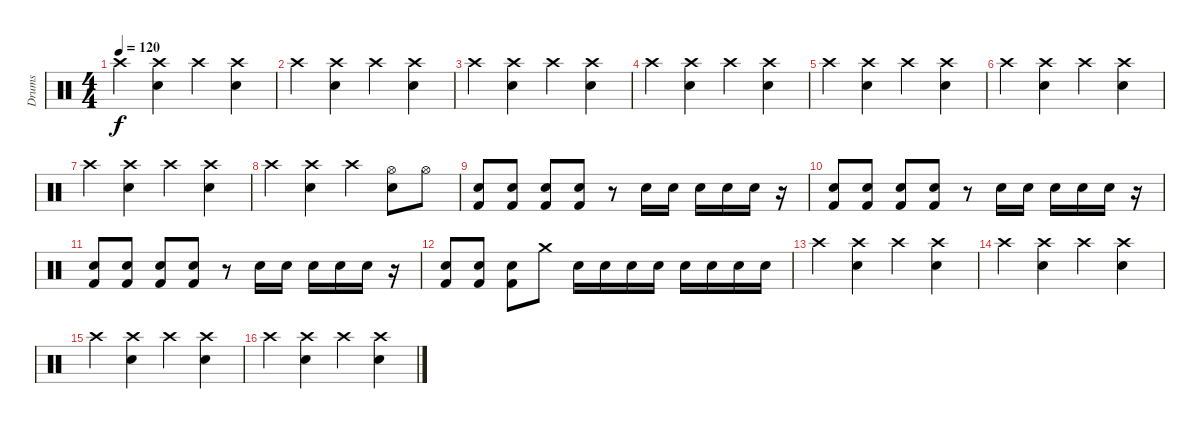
\track ("Drums" "Drums") {instrument percussion}
\staff {score}
\articulation defaults
\ts (4 4)
\tempo 120
\clef neutral
\ks c "Crash high (hit)".4{dy f}
("Crash high (hit)" "Snare (hit) 2").4 "Crash high (hit)".4 ("Crash high (hit)" "Snare (hit) 2").4 |
"Crash high (hit)".4 ("Crash high (hit)" "Snare (hit) 2").4 "Crash high (hit)".4 ("Crash high (hit)" "Snare (hit) 2").4 |
"Crash high (hit)".4 ("Crash high (hit)" "Snare (hit) 2").4 "Crash high (hit)".4 ("Crash high (hit)" "Snare (hit) 2").4 |
"Crash high (hit)".4 ("Crash high (hit)" "Snare (hit) 2").4 "Crash high (hit)".4 ("Crash high (hit)" "Snare (hit) 2").4 |
"Crash high (hit)".4 ("Crash high (hit)" "Snare (hit) 2").4 "Crash high (hit)".4 ("Crash high (hit)" "Snare (hit) 2").4 |
"Crash high (hit)".4 ("Crash high (hit)" "Snare (hit) 2").4 "Crash high (hit)".4 ("Crash high (hit)" "Snare (hit) 2").4 |
"Crash high (hit)".4 ("Crash high (hit)" "Snare (hit) 2").4 "Crash high (hit)".4 ("Crash high (hit)" "Snare (hit) 2").4 |
"Crash high (hit)".4 ("Crash high (hit)" "Snare (hit) 2").4 "Crash high (hit)".4 ("Hi-Hat (open)" "Snare (hit) 2").8 "Hi-Hat (open)".8 |
("Kick (hit) 2" "Snare (hit) 2").8 ("Kick (hit) 2" "Snare (hit) 2").8 ("Kick (hit) 2" "Snare (hit) 2").8 ("Kick (hit) 2" "Snare (hit) 2").8 r.8 "Snare (hit) 2".16 "Snare (hit) 2".16 "Snare (hit) 2".16 "Snare (hit) 2".16 "Snare (hit) 2".16 r.16 |
("Kick (hit) 2" "Snare (hit) 2").8 ("Kick (hit) 2" "Snare (hit) 2").8 ("Kick (hit) 2" "Snare (hit) 2").8 ("Kick (hit) 2" "Snare (hit) 2").8 r.8 "Snare (hit) 2".16 "Snare (hit) 2".16 "Snare (hit) 2".16 "Snare (hit) 2".16 "Snare (hit) 2".16 r.16 |
("Kick (hit) 2" "Snare (hit) 2").8 ("Kick (hit) 2" "Snare (hit) 2").8 ("Kick (hit) 2" "Snare (hit) 2").8 ("Kick (hit) 2" "Snare (hit) 2").8 r.8 "Snare (hit) 2".16 "Snare (hit) 2".16 "Snare (hit) 2".16 "Snare (hit) 2".16 "Snare (hit) 2".16 r.16 |
("Kick (hit) 2" "Snare (hit) 2").8 ("Kick (hit) 2" "Snare (hit) 2").8 ("Kick (hit) 2" "Snare (hit) 2").8 "Crash medium (hit)".8 "Snare (hit) 2".16 "Snare (hit) 2".16 "Snare (hit) 2".16 "Snare (hit) 2".16 "Snare (hit) 2".16 "Snare (hit) 2".16 "Snare (hit) 2".16 "Snare (hit) 2".16 |
"Crash high (hit)".4 ("Crash high (hit)" "Snare (hit) 2").4 "Crash high (hit)".4 ("Crash high (hit)" "Snare (hit) 2").4 |
"Crash high (hit)".4 ("Crash high (hit)" "Snare (hit) 2").4 "Crash high (hit)".4 ("Crash high (hit)" "Snare (hit) 2").4 |
"Crash high (hit)".4 ("Crash high (hit)" "Snare (hit) 2").4 "Crash high (hit)".4 ("Crash high (hit)" "Snare (hit) 2").4 |
"Crash high (hit)".4 ("Crash high (hit)" "Snare (hit) 2").4 "Crash high (hit)".4 ("Crash high (hit)" "Snare (hit) 2").4
